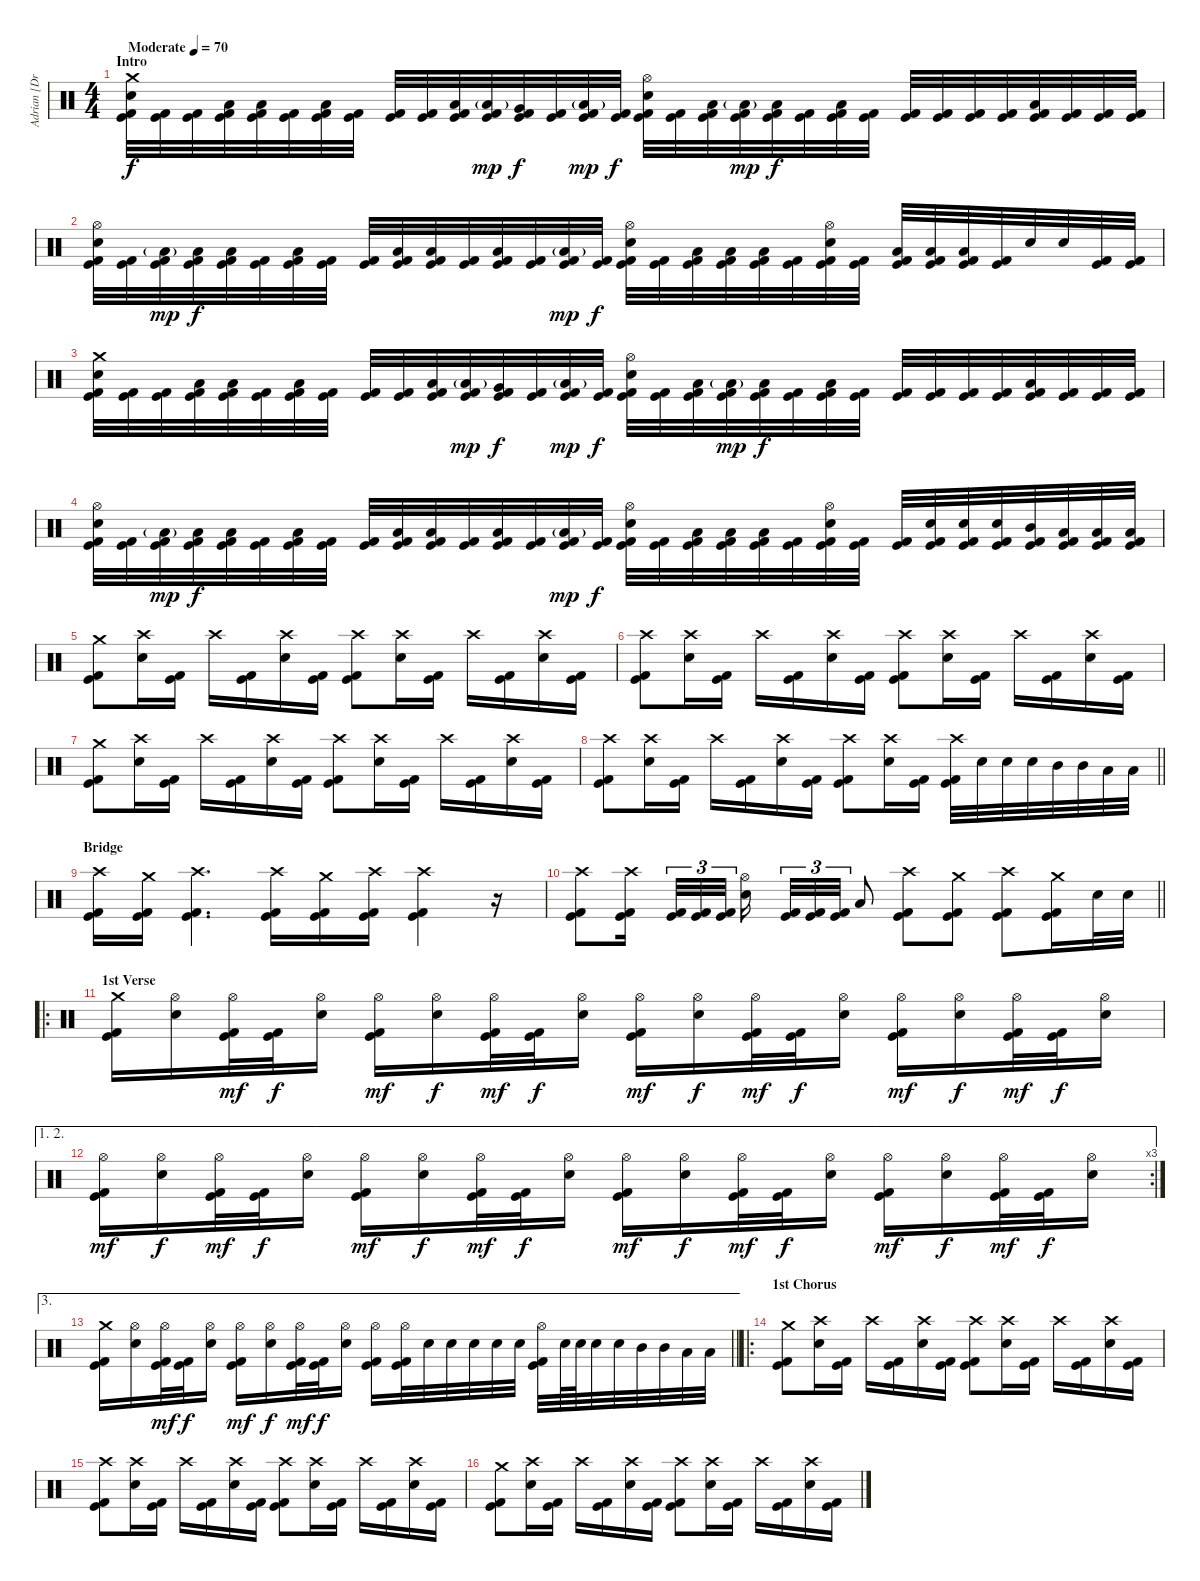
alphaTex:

\track ("Adrian [Drums]" "Adrian [Dr") {instrument percussion}
\staff {score}
\articulation defaults
\ts (4 4)
\section ("" "Intro")
\tempo (70 "Moderate")
\clef neutral
\ks c
("Crash medium (hit)" "Electric Snare (hit)" "Kick (hit)" "Kick (hit) 2").32{dy f} ("Kick (hit)" "Kick (hit) 2").32 ("Kick (hit)" "Kick (hit) 2").32 ("Low Tom (hit)" "Kick (hit)" "Kick (hit) 2").32 ("Low Tom (hit)" "Kick (hit)" "Kick (hit) 2").32 ("Kick (hit)" "Kick (hit) 2").32 ("Low Tom (hit)" "Kick (hit)" "Kick (hit) 2").32 ("Kick (hit)" "Kick (hit) 2").32 ("Kick (hit)" "Kick (hit) 2").32 ("Kick (hit)" "Kick (hit) 2").32 ("Low Tom (hit)" "Kick (hit)" "Kick (hit) 2").32 ("Low Tom (hit)"{g} "Kick (hit)" "Kick (hit) 2").32{dy mp} ("Very Low Tom (hit)" "Kick (hit)" "Kick (hit) 2").32{dy f} ("Kick (hit)" "Kick (hit) 2").32 ("Low Tom (hit)"{g} "Kick (hit)" "Kick (hit) 2").32{dy mp} ("Kick (hit)" "Kick (hit) 2").32{dy f} ("Hi-Hat (open)" "Electric Snare (hit)" "Kick (hit)" "Kick (hit) 2").32 ("Kick (hit)" "Kick (hit) 2").32 ("Low Tom (hit)" "Kick (hit)" "Kick (hit) 2").32 ("Low Tom (hit)"{g} "Kick (hit)" "Kick (hit) 2").32{dy mp} ("Low Tom (hit)" "Kick (hit)" "Kick (hit) 2").32{dy f} ("Kick (hit)" "Kick (hit) 2").32 ("Low Tom (hit)" "Kick (hit)" "Kick (hit) 2").32 ("Kick (hit)" "Kick (hit) 2").32 ("Kick (hit)" "Kick (hit) 2").32 ("Kick (hit)" "Kick (hit) 2").32 ("Kick (hit)" "Kick (hit) 2").32 ("Kick (hit)" "Kick (hit) 2").32 ("Low Tom (hit)" "Kick (hit)" "Kick (hit) 2").32 ("Kick (hit)" "Kick (hit) 2").32 ("Kick (hit)" "Kick (hit) 2").32 ("Kick (hit)" "Kick (hit) 2").32 |
("Hi-Hat (open)" "Electric Snare (hit)" "Kick (hit)" "Kick (hit) 2").32 ("Kick (hit)" "Kick (hit) 2").32 ("Low Tom (hit)"{g} "Kick (hit)" "Kick (hit) 2").32{dy mp} ("Low Tom (hit)" "Kick (hit)" "Kick (hit) 2").32{dy f} ("Low Tom (hit)" "Kick (hit)" "Kick (hit) 2").32 ("Kick (hit)" "Kick (hit) 2").32 ("Low Tom (hit)" "Kick (hit)" "Kick (hit) 2").32 ("Kick (hit)" "Kick (hit) 2").32 ("Kick (hit)" "Kick (hit) 2").32 ("Low Tom (hit)" "Kick (hit)" "Kick (hit) 2").32 ("Low Tom (hit)" "Kick (hit)" "Kick (hit) 2").32 ("Kick (hit)" "Kick (hit) 2").32 ("Low Tom (hit)" "Kick (hit)" "Kick (hit) 2").32 ("Kick (hit)" "Kick (hit) 2").32 ("Low Tom (hit)"{g} "Kick (hit)" "Kick (hit) 2").32{dy mp} ("Kick (hit)" "Kick (hit) 2").32{dy f} ("Hi-Hat (open)" "Electric Snare (hit)" "Kick (hit)" "Kick (hit) 2").32 ("Kick (hit)" "Kick (hit) 2").32 ("Low Tom (hit)" "Kick (hit)" "Kick (hit) 2").32 ("Low Tom (hit)" "Kick (hit)" "Kick (hit) 2").32 ("Low Tom (hit)" "Kick (hit)" "Kick (hit) 2").32 ("Kick (hit)" "Kick (hit) 2").32 ("Hi-Hat (open)" "Electric Snare (hit)" "Kick (hit)" "Kick (hit) 2").32 ("Kick (hit)" "Kick (hit) 2").32 ("Low Tom (hit)" "Kick (hit)" "Kick (hit) 2").32 ("Low Tom (hit)" "Kick (hit)" "Kick (hit) 2").32 ("Low Tom (hit)" "Kick (hit)" "Kick (hit) 2").32 ("Kick (hit)" "Kick (hit) 2").32 "Electric Snare (hit)".32 "Electric Snare (hit)".32 ("Kick (hit)" "Kick (hit) 2").32 ("Kick (hit)" "Kick (hit) 2").32 |
("Crash medium (hit)" "Electric Snare (hit)" "Kick (hit)" "Kick (hit) 2").32 ("Kick (hit)" "Kick (hit) 2").32 ("Kick (hit)" "Kick (hit) 2").32 ("Low Tom (hit)" "Kick (hit)" "Kick (hit) 2").32 ("Low Tom (hit)" "Kick (hit)" "Kick (hit) 2").32 ("Kick (hit)" "Kick (hit) 2").32 ("Low Tom (hit)" "Kick (hit)" "Kick (hit) 2").32 ("Kick (hit)" "Kick (hit) 2").32 ("Kick (hit)" "Kick (hit) 2").32 ("Kick (hit)" "Kick (hit) 2").32 ("Low Tom (hit)" "Kick (hit)" "Kick (hit) 2").32 ("Low Tom (hit)"{g} "Kick (hit)" "Kick (hit) 2").32{dy mp} ("Very Low Tom (hit)" "Kick (hit)" "Kick (hit) 2").32{dy f} ("Kick (hit)" "Kick (hit) 2").32 ("Low Tom (hit)"{g} "Kick (hit)" "Kick (hit) 2").32{dy mp} ("Kick (hit)" "Kick (hit) 2").32{dy f} ("Hi-Hat (open)" "Electric Snare (hit)" "Kick (hit)" "Kick (hit) 2").32 ("Kick (hit)" "Kick (hit) 2").32 ("Low Tom (hit)" "Kick (hit)" "Kick (hit) 2").32 ("Low Tom (hit)"{g} "Kick (hit)" "Kick (hit) 2").32{dy mp} ("Low Tom (hit)" "Kick (hit)" "Kick (hit) 2").32{dy f} ("Kick (hit)" "Kick (hit) 2").32 ("Low Tom (hit)" "Kick (hit)" "Kick (hit) 2").32 ("Kick (hit)" "Kick (hit) 2").32 ("Kick (hit)" "Kick (hit) 2").32 ("Kick (hit)" "Kick (hit) 2").32 ("Kick (hit)" "Kick (hit) 2").32 ("Kick (hit)" "Kick (hit) 2").32 ("Low Tom (hit)" "Kick (hit)" "Kick (hit) 2").32 ("Kick (hit)" "Kick (hit) 2").32 ("Kick (hit)" "Kick (hit) 2").32 ("Kick (hit)" "Kick (hit) 2").32 |
("Hi-Hat (open)" "Electric Snare (hit)" "Kick (hit)" "Kick (hit) 2").32 ("Kick (hit)" "Kick (hit) 2").32 ("Low Tom (hit)"{g} "Kick (hit)" "Kick (hit) 2").32{dy mp} ("Low Tom (hit)" "Kick (hit)" "Kick (hit) 2").32{dy f} ("Low Tom (hit)" "Kick (hit)" "Kick (hit) 2").32 ("Kick (hit)" "Kick (hit) 2").32 ("Low Tom (hit)" "Kick (hit)" "Kick (hit) 2").32 ("Kick (hit)" "Kick (hit) 2").32 ("Kick (hit)" "Kick (hit) 2").32 ("Low Tom (hit)" "Kick (hit)" "Kick (hit) 2").32 ("Low Tom (hit)" "Kick (hit)" "Kick (hit) 2").32 ("Kick (hit)" "Kick (hit) 2").32 ("Low Tom (hit)" "Kick (hit)" "Kick (hit) 2").32 ("Kick (hit)" "Kick (hit) 2").32 ("Low Tom (hit)"{g} "Kick (hit)" "Kick (hit) 2").32{dy mp} ("Kick (hit)" "Kick (hit) 2").32{dy f} ("Hi-Hat (open)" "Electric Snare (hit)" "Kick (hit)" "Kick (hit) 2").32 ("Kick (hit)" "Kick (hit) 2").32 ("Low Tom (hit)" "Kick (hit)" "Kick (hit) 2").32 ("Low Tom (hit)" "Kick (hit)" "Kick (hit) 2").32 ("Low Tom (hit)" "Kick (hit)" "Kick (hit) 2").32 ("Kick (hit)" "Kick (hit) 2").32 ("Hi-Hat (open)" "Electric Snare (hit)" "Kick (hit)" "Kick (hit) 2").32 ("Kick (hit)" "Kick (hit) 2").32 ("Kick (hit)" "Kick (hit) 2").32 ("Electric Snare (hit)" "Kick (hit)" "Kick (hit) 2").32 ("Electric Snare (hit)" "Kick (hit)" "Kick (hit) 2").32 ("Electric Snare (hit)" "Kick (hit)" "Kick (hit) 2").32 ("Mid Tom (hit)" "Kick (hit)" "Kick (hit) 2").32 ("Low Tom (hit)" "Kick (hit)" "Kick (hit) 2").32 ("Low Tom (hit)" "Kick (hit)" "Kick (hit) 2").32 ("Low Tom (hit)" "Kick (hit)" "Kick (hit) 2").32 |
("Crash medium (hit)" "Kick (hit)" "Kick (hit) 2").8 ("Crash high (hit)" "Electric Snare (hit)").16 ("Kick (hit)" "Kick (hit) 2").16 "Crash high (hit)".16 ("Kick (hit)" "Kick (hit) 2").16 ("Crash high (hit)" "Electric Snare (hit)").16 ("Kick (hit)" "Kick (hit) 2").16 ("Crash high (hit)" "Kick (hit)" "Kick (hit) 2").8 ("Crash high (hit)" "Electric Snare (hit)").16 ("Kick (hit)" "Kick (hit) 2").16 "Crash high (hit)".16 ("Kick (hit)" "Kick (hit) 2").16 ("Crash high (hit)" "Electric Snare (hit)").16 ("Kick (hit)" "Kick (hit) 2").16 |
("Crash high (hit)" "Kick (hit)" "Kick (hit) 2").8 ("Crash high (hit)" "Electric Snare (hit)").16 ("Kick (hit)" "Kick (hit) 2").16 "Crash high (hit)".16 ("Kick (hit)" "Kick (hit) 2").16 ("Crash high (hit)" "Electric Snare (hit)").16 ("Kick (hit)" "Kick (hit) 2").16 ("Crash high (hit)" "Kick (hit)" "Kick (hit) 2").8 ("Crash high (hit)" "Electric Snare (hit)").16 ("Kick (hit)" "Kick (hit) 2").16 "Crash high (hit)".16 ("Kick (hit)" "Kick (hit) 2").16 ("Crash high (hit)" "Electric Snare (hit)").16 ("Kick (hit)" "Kick (hit) 2").16 |
("Crash medium (hit)" "Kick (hit)" "Kick (hit) 2").8 ("Crash high (hit)" "Electric Snare (hit)").16 ("Kick (hit)" "Kick (hit) 2").16 "Crash high (hit)".16 ("Kick (hit)" "Kick (hit) 2").16 ("Crash high (hit)" "Electric Snare (hit)").16 ("Kick (hit)" "Kick (hit) 2").16 ("Crash high (hit)" "Kick (hit)" "Kick (hit) 2").8 ("Crash high (hit)" "Electric Snare (hit)").16 ("Kick (hit)" "Kick (hit) 2").16 "Crash high (hit)".16 ("Kick (hit)" "Kick (hit) 2").16 ("Crash high (hit)" "Electric Snare (hit)").16 ("Kick (hit)" "Kick (hit) 2").16 |
\barLineRight lightlight
("Crash high (hit)" "Kick (hit)" "Kick (hit) 2").8 ("Crash high (hit)" "Electric Snare (hit)").16 ("Kick (hit)" "Kick (hit) 2").16 "Crash high (hit)".16 ("Kick (hit)" "Kick (hit) 2").16 ("Crash high (hit)" "Electric Snare (hit)").16 ("Kick (hit)" "Kick (hit) 2").16 ("Crash high (hit)" "Kick (hit)" "Kick (hit) 2").8 ("Crash high (hit)" "Electric Snare (hit)").16 ("Kick (hit)" "Kick (hit) 2").16 ("Crash high (hit)" "Kick (hit)" "Kick (hit) 2").32 "Electric Snare (hit)".32 "Electric Snare (hit)".32 "Electric Snare (hit)".32 "Mid Tom (hit)".32 "Mid Tom (hit)".32 "Low Tom (hit)".32 "Low Tom (hit)".32 |
\section ("" "Bridge")
("Crash high (hit)" "Kick (hit)" "Kick (hit) 2").16 ("Crash medium (hit)" "Kick (hit)" "Kick (hit) 2").16 ("Crash high (hit)" "Kick (hit)" "Kick (hit) 2").4{d} ("Crash high (hit)" "Kick (hit)" "Kick (hit) 2").16 ("Crash medium (hit)" "Kick (hit)" "Kick (hit) 2").16 ("Crash high (hit)" "Kick (hit)" "Kick (hit) 2").16 ("Crash high (hit)" "Kick (hit)" "Kick (hit) 2").4 r.16 |
\barLineRight lightlight
("Crash high (hit)" "Kick (hit)" "Kick (hit) 2").8 ("Crash high (hit)" "Kick (hit)" "Kick (hit) 2").16{beam splitsecondary} ("Kick (hit)" "Kick (hit) 2").32{tu (3 2)} ("Kick (hit)" "Kick (hit) 2").32{tu (3 2)} ("Kick (hit)" "Kick (hit) 2").32{tu (3 2)} ("Hi-Hat (open)" "Electric Snare (hit)").16{beam splitsecondary} ("Kick (hit)" "Kick (hit) 2").32{tu (3 2)} ("Kick (hit)" "Kick (hit) 2").32{tu (3 2)} ("Kick (hit)" "Kick (hit) 2").32{tu (3 2)} "Low Tom (hit)".8 ("Crash high (hit)" "Kick (hit)" "Kick (hit) 2").8 ("Crash medium (hit)" "Kick (hit)" "Kick (hit) 2").8 ("Crash high (hit)" "Kick (hit)" "Kick (hit) 2").8 ("Crash medium (hit)" "Kick (hit)" "Kick (hit) 2").16 "Electric Snare (hit)".32 "Electric Snare (hit)".32 |
\ro
\section ("" "1st Verse")
("Crash medium (hit)" "Kick (hit)" "Kick (hit) 2").16 ("Hi-Hat (open)" "Electric Snare (hit)").16 ("Hi-Hat (open)" "Kick (hit)" "Kick (hit) 2").32{dy mf} ("Kick (hit)" "Kick (hit) 2").32{dy f} ("Hi-Hat (open)" "Electric Snare (hit)").16 ("Hi-Hat (open)" "Kick (hit)" "Kick (hit) 2").16{dy mf} ("Hi-Hat (open)" "Electric Snare (hit)").16{dy f} ("Hi-Hat (open)" "Kick (hit)" "Kick (hit) 2").32{dy mf} ("Kick (hit)" "Kick (hit) 2").32{dy f} ("Hi-Hat (open)" "Electric Snare (hit)").16 ("Hi-Hat (open)" "Kick (hit)" "Kick (hit) 2").16{dy mf} ("Hi-Hat (open)" "Electric Snare (hit)").16{dy f} ("Hi-Hat (open)" "Kick (hit)" "Kick (hit) 2").32{dy mf} ("Kick (hit)" "Kick (hit) 2").32{dy f} ("Hi-Hat (open)" "Electric Snare (hit)").16 ("Hi-Hat (open)" "Kick (hit)" "Kick (hit) 2").16{dy mf} ("Hi-Hat (open)" "Electric Snare (hit)").16{dy f} ("Hi-Hat (open)" "Kick (hit)" "Kick (hit) 2").32{dy mf} ("Kick (hit)" "Kick (hit) 2").32{dy f} ("Hi-Hat (open)" "Electric Snare (hit)").16 |
\ae (1 2)
\rc 3
("Hi-Hat (open)" "Kick (hit)" "Kick (hit) 2").16{dy mf} ("Hi-Hat (open)" "Electric Snare (hit)").16{dy f} ("Hi-Hat (open)" "Kick (hit)" "Kick (hit) 2").32{dy mf} ("Kick (hit)" "Kick (hit) 2").32{dy f} ("Hi-Hat (open)" "Electric Snare (hit)").16 ("Hi-Hat (open)" "Kick (hit)" "Kick (hit) 2").16{dy mf} ("Hi-Hat (open)" "Electric Snare (hit)").16{dy f} ("Hi-Hat (open)" "Kick (hit)" "Kick (hit) 2").32{dy mf} ("Kick (hit)" "Kick (hit) 2").32{dy f} ("Hi-Hat (open)" "Electric Snare (hit)").16 ("Hi-Hat (open)" "Kick (hit)" "Kick (hit) 2").16{dy mf} ("Hi-Hat (open)" "Electric Snare (hit)").16{dy f} ("Hi-Hat (open)" "Kick (hit)" "Kick (hit) 2").32{dy mf} ("Kick (hit)" "Kick (hit) 2").32{dy f} ("Hi-Hat (open)" "Electric Snare (hit)").16 ("Hi-Hat (open)" "Kick (hit)" "Kick (hit) 2").16{dy mf} ("Hi-Hat (open)" "Electric Snare (hit)").16{dy f} ("Hi-Hat (open)" "Kick (hit)" "Kick (hit) 2").32{dy mf} ("Kick (hit)" "Kick (hit) 2").32{dy f} ("Hi-Hat (open)" "Electric Snare (hit)").16 |
\ae 3
\barLineRight lightlight
("Crash medium (hit)" "Kick (hit)" "Kick (hit) 2").16 ("Hi-Hat (open)" "Electric Snare (hit)").16 ("Hi-Hat (open)" "Kick (hit)" "Kick (hit) 2").32{dy mf} ("Kick (hit)" "Kick (hit) 2").32{dy f} ("Hi-Hat (open)" "Electric Snare (hit)").16 ("Hi-Hat (open)" "Kick (hit)" "Kick (hit) 2").16{dy mf} ("Hi-Hat (open)" "Electric Snare (hit)").16{dy f} ("Hi-Hat (open)" "Kick (hit)" "Kick (hit) 2").32{dy mf} ("Kick (hit)" "Kick (hit) 2").32{dy f} ("Hi-Hat (open)" "Electric Snare (hit)").16 ("Hi-Hat (open)" "Kick (hit)" "Kick (hit) 2").16 ("Hi-Hat (open)" "Kick (hit)" "Kick (hit) 2").32 "Electric Snare (hit)".32 "Electric Snare (hit)".32 "Electric Snare (hit)".32 "Electric Snare (hit)".32 "Electric Snare (hit)".32 ("Hi-Hat (open)" "Kick (hit)" "Kick (hit) 2").32 "Electric Snare (hit)".64 "Electric Snare (hit)".64 "Electric Snare (hit)".32 "Electric Snare (hit)".32 "Mid Tom (hit)".32 "Mid Tom (hit)".32 "Low Tom (hit)".32 "Low Tom (hit)".32 |
\ro
\section ("" "1st Chorus")
("Crash medium (hit)" "Kick (hit)" "Kick (hit) 2").8 ("Crash high (hit)" "Electric Snare (hit)").16 ("Kick (hit)" "Kick (hit) 2").16 "Crash high (hit)".16 ("Kick (hit)" "Kick (hit) 2").16 ("Crash high (hit)" "Electric Snare (hit)").16 ("Kick (hit)" "Kick (hit) 2").16 ("Crash high (hit)" "Kick (hit)" "Kick (hit) 2").8 ("Crash high (hit)" "Electric Snare (hit)").16 ("Kick (hit)" "Kick (hit) 2").16 "Crash high (hit)".16 ("Kick (hit)" "Kick (hit) 2").16 ("Crash high (hit)" "Electric Snare (hit)").16 ("Kick (hit)" "Kick (hit) 2").16 |
("Crash high (hit)" "Kick (hit)" "Kick (hit) 2").8 ("Crash high (hit)" "Electric Snare (hit)").16 ("Kick (hit)" "Kick (hit) 2").16 "Crash high (hit)".16 ("Kick (hit)" "Kick (hit) 2").16 ("Crash high (hit)" "Electric Snare (hit)").16 ("Kick (hit)" "Kick (hit) 2").16 ("Crash high (hit)" "Kick (hit)" "Kick (hit) 2").8 ("Crash high (hit)" "Electric Snare (hit)").16 ("Kick (hit)" "Kick (hit) 2").16 "Crash high (hit)".16 ("Kick (hit)" "Kick (hit) 2").16 ("Crash high (hit)" "Electric Snare (hit)").16 ("Kick (hit)" "Kick (hit) 2").16 |
("Crash medium (hit)" "Kick (hit)" "Kick (hit) 2").8 ("Crash high (hit)" "Electric Snare (hit)").16 ("Kick (hit)" "Kick (hit) 2").16 "Crash high (hit)".16 ("Kick (hit)" "Kick (hit) 2").16 ("Crash high (hit)" "Electric Snare (hit)").16 ("Kick (hit)" "Kick (hit) 2").16 ("Crash high (hit)" "Kick (hit)" "Kick (hit) 2").8 ("Crash high (hit)" "Electric Snare (hit)").16 ("Kick (hit)" "Kick (hit) 2").16 "Crash high (hit)".16 ("Kick (hit)" "Kick (hit) 2").16 ("Crash high (hit)" "Electric Snare (hit)").16 ("Kick (hit)" "Kick (hit) 2").16
